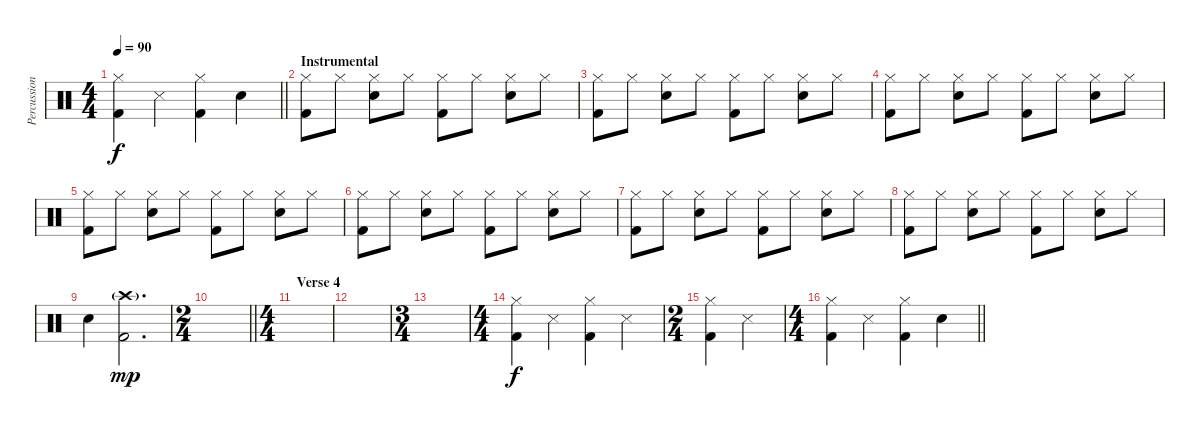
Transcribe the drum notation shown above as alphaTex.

\track ("Percussion" "Percussion") {instrument percussion}
\staff {score}
\articulation defaults
\ts (4 4)
\tempo 90
\clef neutral
\barLineRight lightlight
\ks c
("Hi-Hat (closed)" "Kick (hit) 2").4{dy f} "Snare (side stick) 3".4 ("Hi-Hat (closed)" "Kick (hit) 2").4 "Snare (hit) 2".4 |
\section ("" "Instrumental")
("Hi-Hat (closed)" "Kick (hit) 2").8 "Hi-Hat (closed)".8 ("Hi-Hat (closed)" "Snare (hit) 2").8 "Hi-Hat (closed)".8 ("Hi-Hat (closed)" "Kick (hit) 2").8 "Hi-Hat (closed)".8 ("Hi-Hat (closed)" "Snare (hit) 2").8 "Hi-Hat (closed)".8 |
("Hi-Hat (closed)" "Kick (hit) 2").8 "Hi-Hat (closed)".8 ("Hi-Hat (closed)" "Snare (hit) 2").8 "Hi-Hat (closed)".8 ("Hi-Hat (closed)" "Kick (hit) 2").8 "Hi-Hat (closed)".8 ("Hi-Hat (closed)" "Snare (hit) 2").8 "Hi-Hat (closed)".8 |
("Hi-Hat (closed)" "Kick (hit) 2").8 "Hi-Hat (closed)".8 ("Hi-Hat (closed)" "Snare (hit) 2").8 "Hi-Hat (closed)".8 ("Hi-Hat (closed)" "Kick (hit) 2").8 "Hi-Hat (closed)".8 ("Hi-Hat (closed)" "Snare (hit) 2").8 "Hi-Hat (closed)".8 |
("Hi-Hat (closed)" "Kick (hit) 2").8 "Hi-Hat (closed)".8 ("Hi-Hat (closed)" "Snare (hit) 2").8 "Hi-Hat (closed)".8 ("Hi-Hat (closed)" "Kick (hit) 2").8 "Hi-Hat (closed)".8 ("Hi-Hat (closed)" "Snare (hit) 2").8 "Hi-Hat (closed)".8 |
("Hi-Hat (closed)" "Kick (hit) 2").8 "Hi-Hat (closed)".8 ("Hi-Hat (closed)" "Snare (hit) 2").8 "Hi-Hat (closed)".8 ("Hi-Hat (closed)" "Kick (hit) 2").8 "Hi-Hat (closed)".8 ("Hi-Hat (closed)" "Snare (hit) 2").8 "Hi-Hat (closed)".8 |
("Hi-Hat (closed)" "Kick (hit) 2").8 "Hi-Hat (closed)".8 ("Hi-Hat (closed)" "Snare (hit) 2").8 "Hi-Hat (closed)".8 ("Hi-Hat (closed)" "Kick (hit) 2").8 "Hi-Hat (closed)".8 ("Hi-Hat (closed)" "Snare (hit) 2").8 "Hi-Hat (closed)".8 |
("Hi-Hat (closed)" "Kick (hit) 2").8 "Hi-Hat (closed)".8 ("Hi-Hat (closed)" "Snare (hit) 2").8 "Hi-Hat (closed)".8 ("Hi-Hat (closed)" "Kick (hit) 2").8 "Hi-Hat (closed)".8 ("Hi-Hat (closed)" "Snare (hit) 2").8 "Hi-Hat (closed)".8 |
"Snare (hit) 2".4 ("Crash high (hit)"{g} "Kick (hit) 2").2{d dy mp} |
\ts (2 4)
\barLineRight lightlight
|
\ts (4 4)
\section ("" "Verse 4")
|
|
\ts (3 4)
|
\ts (4 4)
("Hi-Hat (closed)" "Kick (hit) 2").4{dy f} "Snare (side stick) 3".4 ("Hi-Hat (closed)" "Kick (hit) 2").4 "Snare (side stick) 3".4 |
\ts (2 4)
("Hi-Hat (closed)" "Kick (hit) 2").4 "Snare (side stick) 3".4 |
\ts (4 4)
\barLineRight lightlight
("Hi-Hat (closed)" "Kick (hit) 2").4 "Snare (side stick) 3".4 ("Hi-Hat (closed)" "Kick (hit) 2").4 "Snare (hit) 2".4
